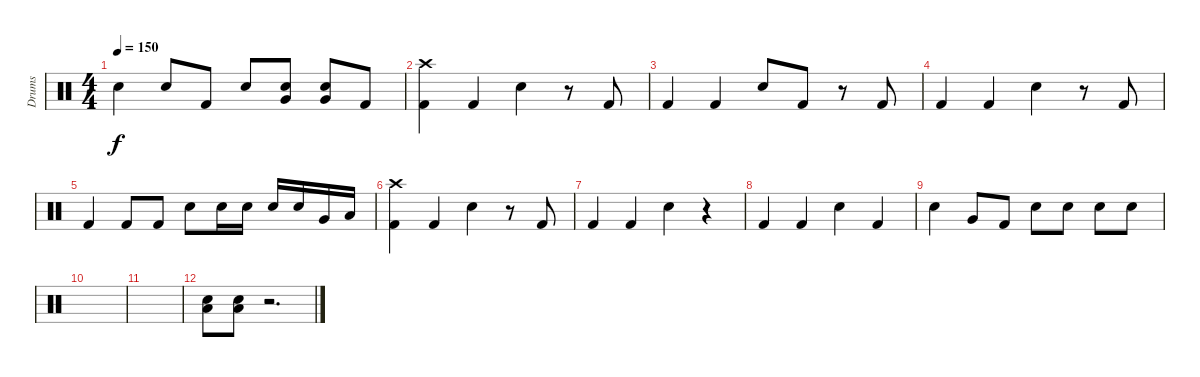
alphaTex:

\track ("Drums" "Drums") {instrument percussion bank 1}
\staff {score}
\articulation defaults
\ts (4 4)
\tempo 150
\clef neutral
\ks c "Snare (hit) 2".4{dy f} "Snare (hit) 2".8 "Kick (hit) 2".8 "Snare (hit) 2".8
("Snare (hit) 2" "Very Low Tom (hit)").8 ("Snare (hit) 2" "Very Low Tom (hit)").8 "Kick (hit) 2".8 |
("Crash high (hit)" "Kick (hit) 2").4 "Kick (hit) 2".4 "Snare (hit) 2".4 r.8 "Kick (hit) 2".8 |
"Kick (hit) 2".4 "Kick (hit) 2".4 "Snare (hit) 2".8 "Kick (hit) 2".8 r.8 "Kick (hit) 2".8 |
"Kick (hit) 2".4 "Kick (hit) 2".4 "Snare (hit) 2".4 r.8 "Kick (hit) 2".8 |
"Kick (hit) 2".4 "Kick (hit) 2".8 "Kick (hit) 2".8 "Snare (hit) 2".8 "Snare (hit) 2".16 "Snare (hit) 2".16 "Snare (hit) 2".16 "Snare (hit) 2".16 "Very Low Tom (hit)".16 "Low Floor Tom (hit)".16 |
("Crash high (hit)" "Kick (hit) 2").4 "Kick (hit) 2".4 "Snare (hit) 2".4 r.8 "Kick (hit) 2".8 |
"Kick (hit) 2".4 "Kick (hit) 2".4 "Snare (hit) 2".4 r.4 |
"Kick (hit) 2".4 "Kick (hit) 2".4 "Snare (hit) 2".4 "Kick (hit) 2".4 |
"Snare (hit) 2".4 "Very Low Tom (hit)".8 "Kick (hit) 2".8 "Snare (hit) 2".8 "Snare (hit) 2".8 "Snare (hit) 2".8 "Snare (hit) 2".8 |
|
|
("Snare (hit) 2" "Low Floor Tom (hit)").8 ("Snare (hit) 2" "Low Floor Tom (hit)").8 r.2{d}
